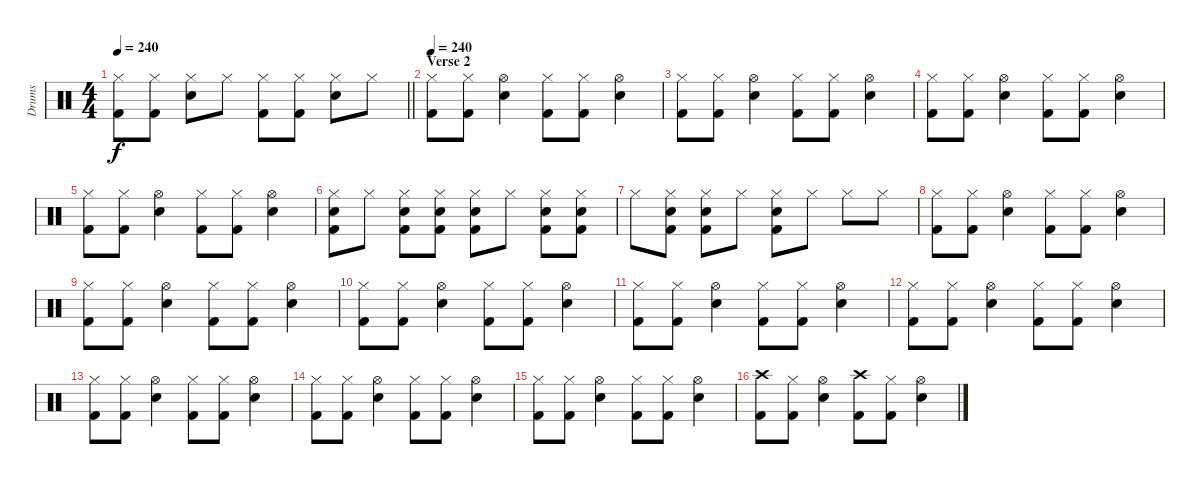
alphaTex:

\track ("Drums" "Drums") {instrument percussion}
\staff {score}
\articulation defaults
\ts (4 4)
\tempo 240
\clef neutral
\barLineRight lightlight
\ks c
("Hi-Hat (closed)" "Kick (hit) 2").8{dy f} ("Hi-Hat (closed)" "Kick (hit) 2").8 ("Hi-Hat (closed)" "Snare (hit) 2").8 "Hi-Hat (closed)".8 ("Hi-Hat (closed)" "Kick (hit) 2").8 ("Hi-Hat (closed)" "Kick (hit) 2").8 ("Hi-Hat (closed)" "Snare (hit) 2").8 "Hi-Hat (closed)".8 |
\section ("" "Verse 2")
\tempo 240
("Hi-Hat (closed)" "Kick (hit) 2").8 ("Hi-Hat (closed)" "Kick (hit) 2").8 ("Hi-Hat (open)" "Snare (hit) 2").4 ("Hi-Hat (closed)" "Kick (hit) 2").8 ("Hi-Hat (closed)" "Kick (hit) 2").8 ("Hi-Hat (open)" "Snare (hit) 2").4 |
("Hi-Hat (closed)" "Kick (hit) 2").8 ("Hi-Hat (closed)" "Kick (hit) 2").8 ("Hi-Hat (open)" "Snare (hit) 2").4 ("Hi-Hat (closed)" "Kick (hit) 2").8 ("Hi-Hat (closed)" "Kick (hit) 2").8 ("Hi-Hat (open)" "Snare (hit) 2").4 |
("Hi-Hat (closed)" "Kick (hit) 2").8 ("Hi-Hat (closed)" "Kick (hit) 2").8 ("Hi-Hat (open)" "Snare (hit) 2").4 ("Hi-Hat (closed)" "Kick (hit) 2").8 ("Hi-Hat (closed)" "Kick (hit) 2").8 ("Hi-Hat (open)" "Snare (hit) 2").4 |
("Hi-Hat (closed)" "Kick (hit) 2").8 ("Hi-Hat (closed)" "Kick (hit) 2").8 ("Hi-Hat (open)" "Snare (hit) 2").4 ("Hi-Hat (closed)" "Kick (hit) 2").8 ("Hi-Hat (closed)" "Kick (hit) 2").8 ("Hi-Hat (open)" "Snare (hit) 2").4 |
("Hi-Hat (closed)" "Snare (hit) 2" "Kick (hit) 2").8 "Hi-Hat (closed)".8 ("Hi-Hat (closed)" "Snare (hit) 2" "Kick (hit) 2").8 ("Hi-Hat (closed)" "Snare (hit) 2" "Kick (hit) 2").8 ("Hi-Hat (closed)" "Snare (hit) 2" "Kick (hit) 2").8 "Hi-Hat (closed)".8 ("Hi-Hat (closed)" "Snare (hit) 2" "Kick (hit) 2").8 ("Hi-Hat (closed)" "Snare (hit) 2" "Kick (hit) 2").8 |
"Hi-Hat (closed)".8 ("Hi-Hat (closed)" "Snare (hit) 2" "Kick (hit) 2").8 ("Hi-Hat (closed)" "Snare (hit) 2" "Kick (hit) 2").8 "Hi-Hat (closed)".8 ("Hi-Hat (closed)" "Snare (hit) 2" "Kick (hit) 2").8 "Hi-Hat (closed)".8 "Hi-Hat (closed)".8 "Hi-Hat (closed)".8 |
("Hi-Hat (closed)" "Kick (hit) 2").8 ("Hi-Hat (closed)" "Kick (hit) 2").8 ("Hi-Hat (open)" "Snare (hit) 2").4 ("Hi-Hat (closed)" "Kick (hit) 2").8 ("Hi-Hat (closed)" "Kick (hit) 2").8 ("Hi-Hat (open)" "Snare (hit) 2").4 |
("Hi-Hat (closed)" "Kick (hit) 2").8 ("Hi-Hat (closed)" "Kick (hit) 2").8 ("Hi-Hat (open)" "Snare (hit) 2").4 ("Hi-Hat (closed)" "Kick (hit) 2").8 ("Hi-Hat (closed)" "Kick (hit) 2").8 ("Hi-Hat (open)" "Snare (hit) 2").4 |
("Hi-Hat (closed)" "Kick (hit) 2").8 ("Hi-Hat (closed)" "Kick (hit) 2").8 ("Hi-Hat (open)" "Snare (hit) 2").4 ("Hi-Hat (closed)" "Kick (hit) 2").8 ("Hi-Hat (closed)" "Kick (hit) 2").8 ("Hi-Hat (open)" "Snare (hit) 2").4 |
("Hi-Hat (closed)" "Kick (hit) 2").8 ("Hi-Hat (closed)" "Kick (hit) 2").8 ("Hi-Hat (open)" "Snare (hit) 2").4 ("Hi-Hat (closed)" "Kick (hit) 2").8 ("Hi-Hat (closed)" "Kick (hit) 2").8 ("Hi-Hat (open)" "Snare (hit) 2").4 |
("Hi-Hat (closed)" "Kick (hit) 2").8 ("Hi-Hat (closed)" "Kick (hit) 2").8 ("Hi-Hat (open)" "Snare (hit) 2").4 ("Hi-Hat (closed)" "Kick (hit) 2").8 ("Hi-Hat (closed)" "Kick (hit) 2").8 ("Hi-Hat (open)" "Snare (hit) 2").4 |
("Hi-Hat (closed)" "Kick (hit) 2").8 ("Hi-Hat (closed)" "Kick (hit) 2").8 ("Hi-Hat (open)" "Snare (hit) 2").4 ("Hi-Hat (closed)" "Kick (hit) 2").8 ("Hi-Hat (closed)" "Kick (hit) 2").8 ("Hi-Hat (open)" "Snare (hit) 2").4 |
("Hi-Hat (closed)" "Kick (hit) 2").8 ("Hi-Hat (closed)" "Kick (hit) 2").8 ("Hi-Hat (open)" "Snare (hit) 2").4 ("Hi-Hat (closed)" "Kick (hit) 2").8 ("Hi-Hat (closed)" "Kick (hit) 2").8 ("Hi-Hat (open)" "Snare (hit) 2").4 |
("Hi-Hat (closed)" "Kick (hit) 2").8 ("Hi-Hat (closed)" "Kick (hit) 2").8 ("Hi-Hat (open)" "Snare (hit) 2").4 ("Hi-Hat (closed)" "Kick (hit) 2").8 ("Hi-Hat (closed)" "Kick (hit) 2").8 ("Hi-Hat (open)" "Snare (hit) 2").4 |
("Crash high (hit)" "Kick (hit) 2").8 ("Hi-Hat (closed)" "Kick (hit) 2").8 ("Hi-Hat (open)" "Snare (hit) 2").4 ("Crash high (hit)" "Kick (hit) 2").8 ("Hi-Hat (closed)" "Kick (hit) 2").8 ("Hi-Hat (open)" "Snare (hit) 2").4
